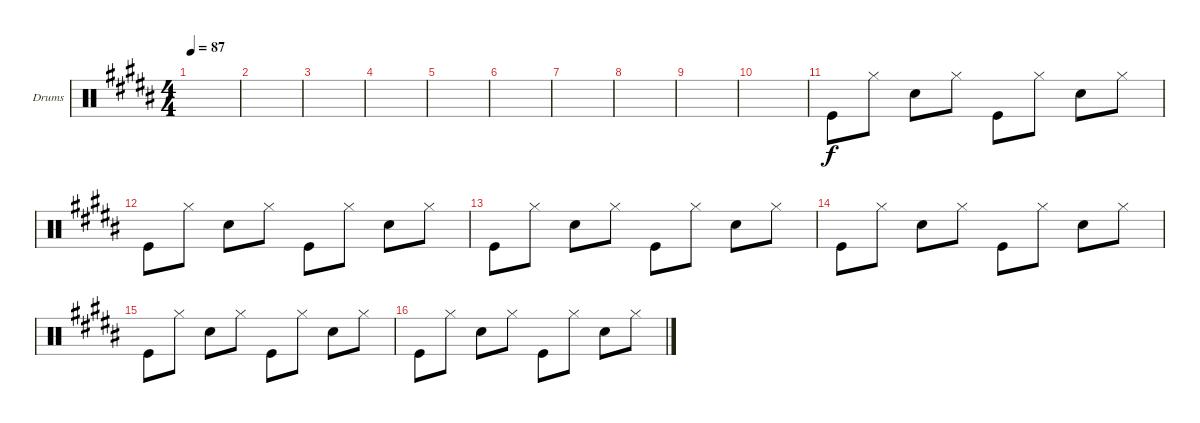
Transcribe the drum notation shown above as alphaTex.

\defaultSystemsLayout 4
\bracketExtendMode groupsimilarinstruments
\firstSystemTrackNameOrientation horizontal
\otherSystemsTrackNameOrientation horizontal
\track ("Drumkit" "Drums") {instrument percussion}
\staff {score}
\articulation defaults
\ts (4 4)
\scale
0.394725
\tempo 87
\accidentals auto
\clef neutral
\ottava regular
\simile none
\scale
0.549407
\ks b
|
\scale
0.316304
\scale
0.225296 |
\scale
0.289111
\scale
0.225296 |
\scale
0.290816 |
\scale
0.418367 |
\scale
0.290816 |
|
|
|
|
"Kick (hit)".8 "Hi-Hat (closed)".8 "Snare (hit) 2".8 "Hi-Hat (closed)".8 "Kick (hit)".8 "Hi-Hat (closed)".8 "Snare (hit) 2".8 "Hi-Hat (closed)".8 |
"Kick (hit)".8 "Hi-Hat (closed)".8 "Snare (hit) 2".8 "Hi-Hat (closed)".8 "Kick (hit)".8 "Hi-Hat (closed)".8 "Snare (hit) 2".8 "Hi-Hat (closed)".8 |
"Kick (hit)".8 "Hi-Hat (closed)".8 "Snare (hit) 2".8 "Hi-Hat (closed)".8 "Kick (hit)".8 "Hi-Hat (closed)".8 "Snare (hit) 2".8 "Hi-Hat (closed)".8 |
"Kick (hit)".8 "Hi-Hat (closed)".8 "Snare (hit) 2".8 "Hi-Hat (closed)".8 "Kick (hit)".8 "Hi-Hat (closed)".8 "Snare (hit) 2".8 "Hi-Hat (closed)".8 |
"Kick (hit)".8 "Hi-Hat (closed)".8 "Snare (hit) 2".8 "Hi-Hat (closed)".8 "Kick (hit)".8 "Hi-Hat (closed)".8 "Snare (hit) 2".8 "Hi-Hat (closed)".8 |
"Kick (hit)".8 "Hi-Hat (closed)".8 "Snare (hit) 2".8 "Hi-Hat (closed)".8 "Kick (hit)".8 "Hi-Hat (closed)".8 "Snare (hit) 2".8 "Hi-Hat (closed)".8
